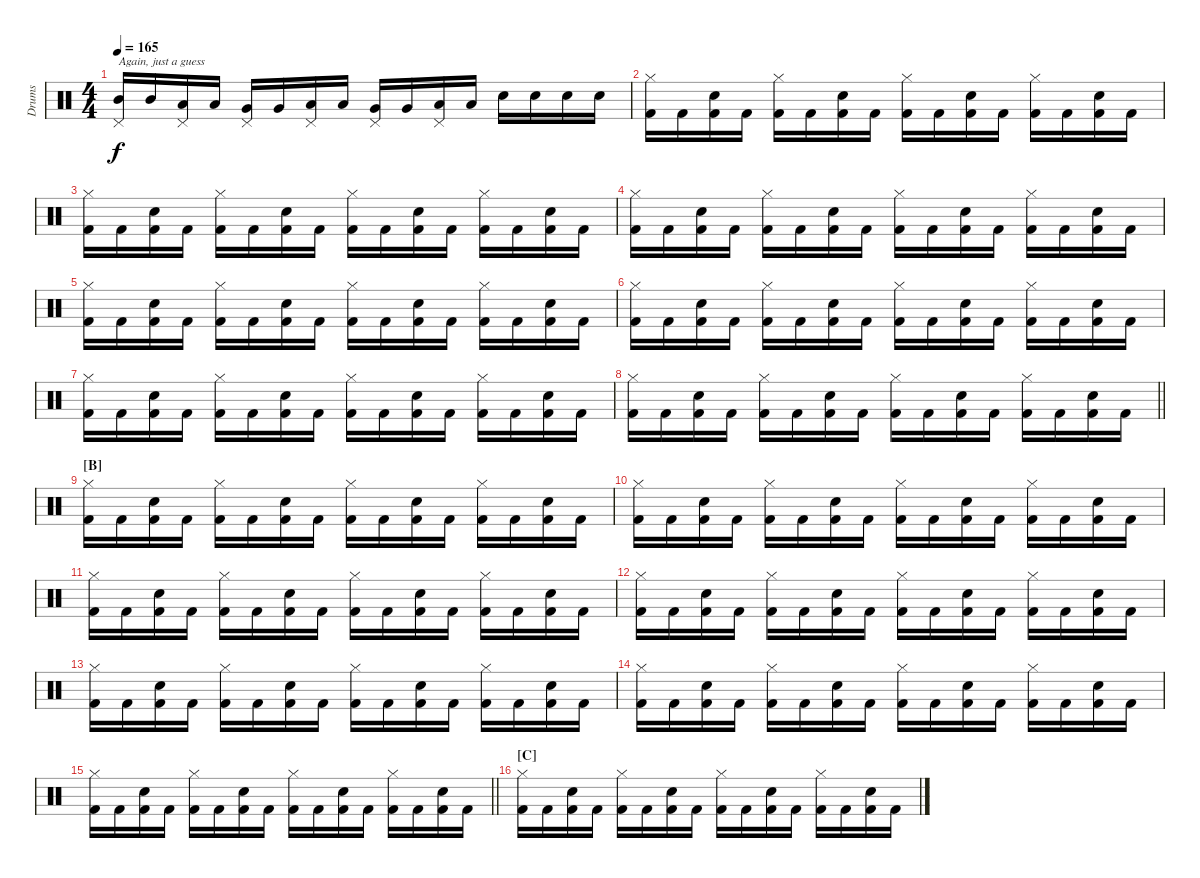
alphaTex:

\track ("Drums" "Drums") {instrument percussion}
\staff {score}
\articulation defaults
\ts (4 4)
\tempo 165
\clef neutral
\ks c
("Pedal Hi-Hat (hit)" "Mid Tom (hit)").16{txt "Again, just a guess" dy f} "Mid Tom (hit)".16 ("Pedal Hi-Hat (hit)" "Low Tom (hit)").16 "Low Tom (hit)".16 ("Pedal Hi-Hat (hit)" "Very Low Tom (hit)").16 "Very Low Tom (hit)".16 ("Pedal Hi-Hat (hit)" "Low Floor Tom (hit)").16 "Low Floor Tom (hit)".16 ("Pedal Hi-Hat (hit)" "Very Low Tom (hit)").16 "Very Low Tom (hit)".16 ("Pedal Hi-Hat (hit)" "Low Floor Tom (hit)").16 "Low Floor Tom (hit)".16 "Electric Snare (hit)".16 "Electric Snare (hit)".16 "Electric Snare (hit)".16 "Electric Snare (hit)".16 |
("Hi-Hat (closed)" "Kick (hit) 2").16 "Kick (hit) 2".16 ("Electric Snare (hit)" "Kick (hit) 2").16 "Kick (hit) 2".16 ("Hi-Hat (closed)" "Kick (hit) 2").16 "Kick (hit) 2".16 ("Electric Snare (hit)" "Kick (hit) 2").16 "Kick (hit) 2".16 ("Hi-Hat (closed)" "Kick (hit) 2").16 "Kick (hit) 2".16 ("Electric Snare (hit)" "Kick (hit) 2").16 "Kick (hit) 2".16 ("Hi-Hat (closed)" "Kick (hit) 2").16 "Kick (hit) 2".16 ("Electric Snare (hit)" "Kick (hit) 2").16 "Kick (hit) 2".16 |
("Hi-Hat (closed)" "Kick (hit) 2").16 "Kick (hit) 2".16 ("Electric Snare (hit)" "Kick (hit) 2").16 "Kick (hit) 2".16 ("Hi-Hat (closed)" "Kick (hit) 2").16 "Kick (hit) 2".16 ("Electric Snare (hit)" "Kick (hit) 2").16 "Kick (hit) 2".16 ("Hi-Hat (closed)" "Kick (hit) 2").16 "Kick (hit) 2".16 ("Electric Snare (hit)" "Kick (hit) 2").16 "Kick (hit) 2".16 ("Hi-Hat (closed)" "Kick (hit) 2").16 "Kick (hit) 2".16 ("Electric Snare (hit)" "Kick (hit) 2").16 "Kick (hit) 2".16 |
("Hi-Hat (closed)" "Kick (hit) 2").16 "Kick (hit) 2".16 ("Electric Snare (hit)" "Kick (hit) 2").16 "Kick (hit) 2".16 ("Hi-Hat (closed)" "Kick (hit) 2").16 "Kick (hit) 2".16 ("Electric Snare (hit)" "Kick (hit) 2").16 "Kick (hit) 2".16 ("Hi-Hat (closed)" "Kick (hit) 2").16 "Kick (hit) 2".16 ("Electric Snare (hit)" "Kick (hit) 2").16 "Kick (hit) 2".16 ("Hi-Hat (closed)" "Kick (hit) 2").16 "Kick (hit) 2".16 ("Electric Snare (hit)" "Kick (hit) 2").16 "Kick (hit) 2".16 |
("Hi-Hat (closed)" "Kick (hit) 2").16 "Kick (hit) 2".16 ("Electric Snare (hit)" "Kick (hit) 2").16 "Kick (hit) 2".16 ("Hi-Hat (closed)" "Kick (hit) 2").16 "Kick (hit) 2".16 ("Electric Snare (hit)" "Kick (hit) 2").16 "Kick (hit) 2".16 ("Hi-Hat (closed)" "Kick (hit) 2").16 "Kick (hit) 2".16 ("Electric Snare (hit)" "Kick (hit) 2").16 "Kick (hit) 2".16 ("Hi-Hat (closed)" "Kick (hit) 2").16 "Kick (hit) 2".16 ("Electric Snare (hit)" "Kick (hit) 2").16 "Kick (hit) 2".16 |
("Hi-Hat (closed)" "Kick (hit) 2").16 "Kick (hit) 2".16 ("Electric Snare (hit)" "Kick (hit) 2").16 "Kick (hit) 2".16 ("Hi-Hat (closed)" "Kick (hit) 2").16 "Kick (hit) 2".16 ("Electric Snare (hit)" "Kick (hit) 2").16 "Kick (hit) 2".16 ("Hi-Hat (closed)" "Kick (hit) 2").16 "Kick (hit) 2".16 ("Electric Snare (hit)" "Kick (hit) 2").16 "Kick (hit) 2".16 ("Hi-Hat (closed)" "Kick (hit) 2").16 "Kick (hit) 2".16 ("Electric Snare (hit)" "Kick (hit) 2").16 "Kick (hit) 2".16 |
("Hi-Hat (closed)" "Kick (hit) 2").16 "Kick (hit) 2".16 ("Electric Snare (hit)" "Kick (hit) 2").16 "Kick (hit) 2".16 ("Hi-Hat (closed)" "Kick (hit) 2").16 "Kick (hit) 2".16 ("Electric Snare (hit)" "Kick (hit) 2").16 "Kick (hit) 2".16 ("Hi-Hat (closed)" "Kick (hit) 2").16 "Kick (hit) 2".16 ("Electric Snare (hit)" "Kick (hit) 2").16 "Kick (hit) 2".16 ("Hi-Hat (closed)" "Kick (hit) 2").16 "Kick (hit) 2".16 ("Electric Snare (hit)" "Kick (hit) 2").16 "Kick (hit) 2".16 |
\barLineRight lightlight
("Hi-Hat (closed)" "Kick (hit) 2").16 "Kick (hit) 2".16 ("Electric Snare (hit)" "Kick (hit) 2").16 "Kick (hit) 2".16 ("Hi-Hat (closed)" "Kick (hit) 2").16 "Kick (hit) 2".16 ("Electric Snare (hit)" "Kick (hit) 2").16 "Kick (hit) 2".16 ("Hi-Hat (closed)" "Kick (hit) 2").16 "Kick (hit) 2".16 ("Electric Snare (hit)" "Kick (hit) 2").16 "Kick (hit) 2".16 ("Hi-Hat (closed)" "Kick (hit) 2").16 "Kick (hit) 2".16 ("Electric Snare (hit)" "Kick (hit) 2").16 "Kick (hit) 2".16 |
\section ("" "[B]")
("Hi-Hat (closed)" "Kick (hit) 2").16 "Kick (hit) 2".16 ("Electric Snare (hit)" "Kick (hit) 2").16 "Kick (hit) 2".16 ("Hi-Hat (closed)" "Kick (hit) 2").16 "Kick (hit) 2".16 ("Electric Snare (hit)" "Kick (hit) 2").16 "Kick (hit) 2".16 ("Hi-Hat (closed)" "Kick (hit) 2").16 "Kick (hit) 2".16 ("Electric Snare (hit)" "Kick (hit) 2").16 "Kick (hit) 2".16 ("Hi-Hat (closed)" "Kick (hit) 2").16 "Kick (hit) 2".16 ("Electric Snare (hit)" "Kick (hit) 2").16 "Kick (hit) 2".16 |
("Hi-Hat (closed)" "Kick (hit) 2").16 "Kick (hit) 2".16 ("Electric Snare (hit)" "Kick (hit) 2").16 "Kick (hit) 2".16 ("Hi-Hat (closed)" "Kick (hit) 2").16 "Kick (hit) 2".16 ("Electric Snare (hit)" "Kick (hit) 2").16 "Kick (hit) 2".16 ("Hi-Hat (closed)" "Kick (hit) 2").16 "Kick (hit) 2".16 ("Electric Snare (hit)" "Kick (hit) 2").16 "Kick (hit) 2".16 ("Hi-Hat (closed)" "Kick (hit) 2").16 "Kick (hit) 2".16 ("Electric Snare (hit)" "Kick (hit) 2").16 "Kick (hit) 2".16 |
("Hi-Hat (closed)" "Kick (hit) 2").16 "Kick (hit) 2".16 ("Electric Snare (hit)" "Kick (hit) 2").16 "Kick (hit) 2".16 ("Hi-Hat (closed)" "Kick (hit) 2").16 "Kick (hit) 2".16 ("Electric Snare (hit)" "Kick (hit) 2").16 "Kick (hit) 2".16 ("Hi-Hat (closed)" "Kick (hit) 2").16 "Kick (hit) 2".16 ("Electric Snare (hit)" "Kick (hit) 2").16 "Kick (hit) 2".16 ("Hi-Hat (closed)" "Kick (hit) 2").16 "Kick (hit) 2".16 ("Electric Snare (hit)" "Kick (hit) 2").16 "Kick (hit) 2".16 |
("Hi-Hat (closed)" "Kick (hit) 2").16 "Kick (hit) 2".16 ("Electric Snare (hit)" "Kick (hit) 2").16 "Kick (hit) 2".16 ("Hi-Hat (closed)" "Kick (hit) 2").16 "Kick (hit) 2".16 ("Electric Snare (hit)" "Kick (hit) 2").16 "Kick (hit) 2".16 ("Hi-Hat (closed)" "Kick (hit) 2").16 "Kick (hit) 2".16 ("Electric Snare (hit)" "Kick (hit) 2").16 "Kick (hit) 2".16 ("Hi-Hat (closed)" "Kick (hit) 2").16 "Kick (hit) 2".16 ("Electric Snare (hit)" "Kick (hit) 2").16 "Kick (hit) 2".16 |
("Hi-Hat (closed)" "Kick (hit) 2").16 "Kick (hit) 2".16 ("Electric Snare (hit)" "Kick (hit) 2").16 "Kick (hit) 2".16 ("Hi-Hat (closed)" "Kick (hit) 2").16 "Kick (hit) 2".16 ("Electric Snare (hit)" "Kick (hit) 2").16 "Kick (hit) 2".16 ("Hi-Hat (closed)" "Kick (hit) 2").16 "Kick (hit) 2".16 ("Electric Snare (hit)" "Kick (hit) 2").16 "Kick (hit) 2".16 ("Hi-Hat (closed)" "Kick (hit) 2").16 "Kick (hit) 2".16 ("Electric Snare (hit)" "Kick (hit) 2").16 "Kick (hit) 2".16 |
("Hi-Hat (closed)" "Kick (hit) 2").16 "Kick (hit) 2".16 ("Electric Snare (hit)" "Kick (hit) 2").16 "Kick (hit) 2".16 ("Hi-Hat (closed)" "Kick (hit) 2").16 "Kick (hit) 2".16 ("Electric Snare (hit)" "Kick (hit) 2").16 "Kick (hit) 2".16 ("Hi-Hat (closed)" "Kick (hit) 2").16 "Kick (hit) 2".16 ("Electric Snare (hit)" "Kick (hit) 2").16 "Kick (hit) 2".16 ("Hi-Hat (closed)" "Kick (hit) 2").16 "Kick (hit) 2".16 ("Electric Snare (hit)" "Kick (hit) 2").16 "Kick (hit) 2".16 |
\barLineRight lightlight
("Hi-Hat (closed)" "Kick (hit) 2").16 "Kick (hit) 2".16 ("Electric Snare (hit)" "Kick (hit) 2").16 "Kick (hit) 2".16 ("Hi-Hat (closed)" "Kick (hit) 2").16 "Kick (hit) 2".16 ("Electric Snare (hit)" "Kick (hit) 2").16 "Kick (hit) 2".16 ("Hi-Hat (closed)" "Kick (hit) 2").16 "Kick (hit) 2".16 ("Electric Snare (hit)" "Kick (hit) 2").16 "Kick (hit) 2".16 ("Hi-Hat (closed)" "Kick (hit) 2").16 "Kick (hit) 2".16 ("Electric Snare (hit)" "Kick (hit) 2").16 "Kick (hit) 2".16 |
\section ("" "[C]")
("Hi-Hat (closed)" "Kick (hit) 2").16 "Kick (hit) 2".16 ("Electric Snare (hit)" "Kick (hit) 2").16 "Kick (hit) 2".16 ("Hi-Hat (closed)" "Kick (hit) 2").16 "Kick (hit) 2".16 ("Electric Snare (hit)" "Kick (hit) 2").16 "Kick (hit) 2".16 ("Hi-Hat (closed)" "Kick (hit) 2").16 "Kick (hit) 2".16 ("Electric Snare (hit)" "Kick (hit) 2").16 "Kick (hit) 2".16 ("Hi-Hat (closed)" "Kick (hit) 2").16 "Kick (hit) 2".16 ("Electric Snare (hit)" "Kick (hit) 2").16 "Kick (hit) 2".16
